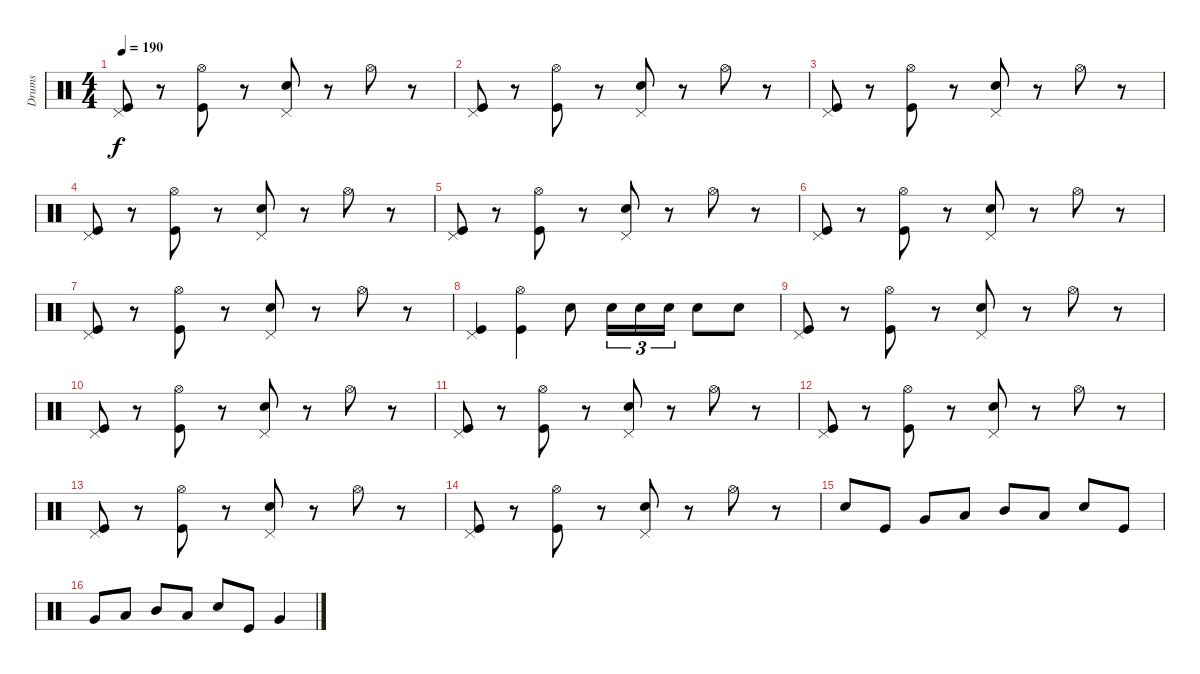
\track ("Drums" "Drums") {instrument percussion}
\staff {score}
\articulation defaults
\ts (4 4)
\tempo 190
\clef neutral
\ks c
("Kick (hit)" "Pedal Hi-Hat (hit)").8{dy f} r.8 ("Kick (hit)" "Hi-Hat (open)").8 r.8 ("Electric Snare (hit)" "Pedal Hi-Hat (hit)").8 r.8 "Hi-Hat (open)".8 r.8 |
("Kick (hit)" "Pedal Hi-Hat (hit)").8 r.8 ("Kick (hit)" "Hi-Hat (open)").8 r.8 ("Electric Snare (hit)" "Pedal Hi-Hat (hit)").8 r.8 "Hi-Hat (open)".8 r.8 |
("Kick (hit)" "Pedal Hi-Hat (hit)").8 r.8 ("Kick (hit)" "Hi-Hat (open)").8 r.8 ("Electric Snare (hit)" "Pedal Hi-Hat (hit)").8 r.8 "Hi-Hat (open)".8 r.8 |
("Kick (hit)" "Pedal Hi-Hat (hit)").8 r.8 ("Kick (hit)" "Hi-Hat (open)").8 r.8 ("Electric Snare (hit)" "Pedal Hi-Hat (hit)").8 r.8 "Hi-Hat (open)".8 r.8 |
("Kick (hit)" "Pedal Hi-Hat (hit)").8 r.8 ("Kick (hit)" "Hi-Hat (open)").8 r.8 ("Electric Snare (hit)" "Pedal Hi-Hat (hit)").8 r.8 "Hi-Hat (open)".8 r.8 |
("Kick (hit)" "Pedal Hi-Hat (hit)").8 r.8 ("Kick (hit)" "Hi-Hat (open)").8 r.8 ("Electric Snare (hit)" "Pedal Hi-Hat (hit)").8 r.8 "Hi-Hat (open)".8 r.8 |
("Kick (hit)" "Pedal Hi-Hat (hit)").8 r.8 ("Kick (hit)" "Hi-Hat (open)").8 r.8 ("Electric Snare (hit)" "Pedal Hi-Hat (hit)").8 r.8 "Hi-Hat (open)".8 r.8 |
("Kick (hit)" "Pedal Hi-Hat (hit)").4 ("Kick (hit)" "Hi-Hat (open)").4 "Electric Snare (hit)".8 "Electric Snare (hit)".16{tu (3 2)} "Electric Snare (hit)".16{tu (3 2)} "Electric Snare (hit)".16{tu (3 2)} "Electric Snare (hit)".8 "Electric Snare (hit)".8 |
("Kick (hit)" "Pedal Hi-Hat (hit)").8 r.8 ("Kick (hit)" "Hi-Hat (open)").8 r.8 ("Electric Snare (hit)" "Pedal Hi-Hat (hit)").8 r.8 "Hi-Hat (open)".8 r.8 |
("Kick (hit)" "Pedal Hi-Hat (hit)").8 r.8 ("Kick (hit)" "Hi-Hat (open)").8 r.8 ("Electric Snare (hit)" "Pedal Hi-Hat (hit)").8 r.8 "Hi-Hat (open)".8 r.8 |
("Kick (hit)" "Pedal Hi-Hat (hit)").8 r.8 ("Kick (hit)" "Hi-Hat (open)").8 r.8 ("Electric Snare (hit)" "Pedal Hi-Hat (hit)").8 r.8 "Hi-Hat (open)".8 r.8 |
("Kick (hit)" "Pedal Hi-Hat (hit)").8 r.8 ("Kick (hit)" "Hi-Hat (open)").8 r.8 ("Electric Snare (hit)" "Pedal Hi-Hat (hit)").8 r.8 "Hi-Hat (open)".8 r.8 |
("Kick (hit)" "Pedal Hi-Hat (hit)").8 r.8 ("Kick (hit)" "Hi-Hat (open)").8 r.8 ("Electric Snare (hit)" "Pedal Hi-Hat (hit)").8 r.8 "Hi-Hat (open)".8 r.8 |
("Kick (hit)" "Pedal Hi-Hat (hit)").8 r.8 ("Kick (hit)" "Hi-Hat (open)").8 r.8 ("Electric Snare (hit)" "Pedal Hi-Hat (hit)").8 r.8 "Hi-Hat (open)".8 r.8 |
"Electric Snare (hit)".8 "Kick (hit)".8 "Very Low Tom (hit)".8 "Low Tom (hit)".8 "Mid Tom (hit)".8 "Low Tom (hit)".8 "Electric Snare (hit)".8 "Kick (hit)".8 |
"Very Low Tom (hit)".8 "Low Tom (hit)".8 "Mid Tom (hit)".8 "Low Tom (hit)".8 "Electric Snare (hit)".8 "Kick (hit)".8 "Very Low Tom (hit)".4
